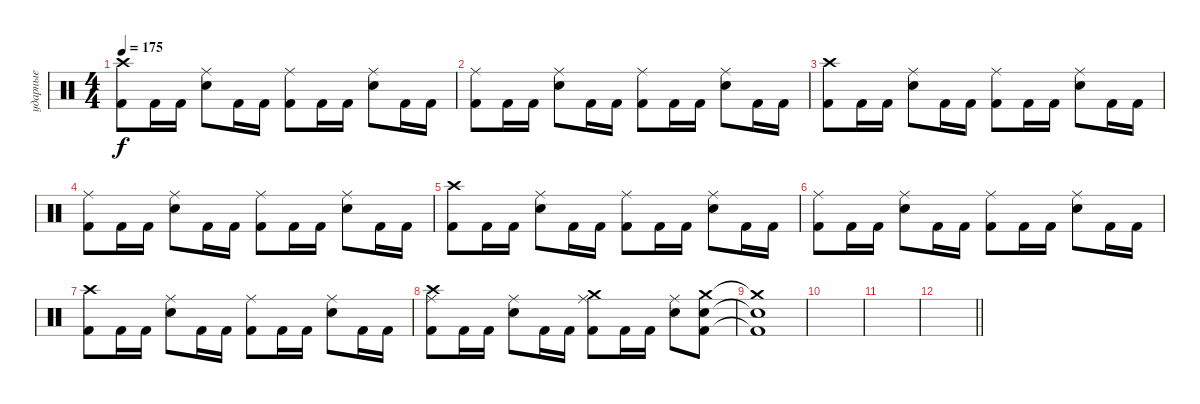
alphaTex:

\track ("ударные" "ударные") {instrument percussion}
\staff {score}
\articulation defaults
\ts (4 4)
\tempo 175
\clef neutral
\ks c
("Kick (hit) 2"{t} "Crash high (hit)"{t}).8{dy f} "Kick (hit) 2".16 "Kick (hit) 2".16 ("Snare (hit) 2" "Ride (middle)").8 "Kick (hit) 2".16 "Kick (hit) 2".16 ("Kick (hit) 2" "Ride (middle)").8 "Kick (hit) 2".16 "Kick (hit) 2".16 ("Snare (hit) 2" "Ride (middle)").8 "Kick (hit) 2".16 "Kick (hit) 2".16 |
("Kick (hit) 2" "Ride (middle)").8 "Kick (hit) 2".16 "Kick (hit) 2".16 ("Snare (hit) 2" "Ride (middle)").8 "Kick (hit) 2".16 "Kick (hit) 2".16 ("Kick (hit) 2" "Ride (middle)").8 "Kick (hit) 2".16 "Kick (hit) 2".16 ("Snare (hit) 2" "Ride (middle)").8 "Kick (hit) 2".16 "Kick (hit) 2".16 |
("Kick (hit) 2" "Crash high (hit)").8 "Kick (hit) 2".16 "Kick (hit) 2".16 ("Snare (hit) 2" "Ride (middle)").8 "Kick (hit) 2".16 "Kick (hit) 2".16 ("Kick (hit) 2" "Ride (middle)").8 "Kick (hit) 2".16 "Kick (hit) 2".16 ("Snare (hit) 2" "Ride (middle)").8 "Kick (hit) 2".16 "Kick (hit) 2".16 |
("Kick (hit) 2" "Ride (middle)").8 "Kick (hit) 2".16 "Kick (hit) 2".16 ("Snare (hit) 2" "Ride (middle)").8 "Kick (hit) 2".16 "Kick (hit) 2".16 ("Kick (hit) 2" "Ride (middle)").8 "Kick (hit) 2".16 "Kick (hit) 2".16 ("Snare (hit) 2" "Ride (middle)").8 "Kick (hit) 2".16 "Kick (hit) 2".16 |
("Kick (hit) 2" "Crash high (hit)").8 "Kick (hit) 2".16 "Kick (hit) 2".16 ("Snare (hit) 2" "Ride (middle)").8 "Kick (hit) 2".16 "Kick (hit) 2".16 ("Kick (hit) 2" "Ride (middle)").8 "Kick (hit) 2".16 "Kick (hit) 2".16 ("Snare (hit) 2" "Ride (middle)").8 "Kick (hit) 2".16 "Kick (hit) 2".16 |
("Kick (hit) 2" "Ride (middle)").8 "Kick (hit) 2".16 "Kick (hit) 2".16 ("Snare (hit) 2" "Ride (middle)").8 "Kick (hit) 2".16 "Kick (hit) 2".16 ("Kick (hit) 2" "Ride (middle)").8 "Kick (hit) 2".16 "Kick (hit) 2".16 ("Snare (hit) 2" "Ride (middle)").8 "Kick (hit) 2".16 "Kick (hit) 2".16 |
("Kick (hit) 2" "Crash high (hit)").8 "Kick (hit) 2".16 "Kick (hit) 2".16 ("Snare (hit) 2" "Ride (middle)").8 "Kick (hit) 2".16 "Kick (hit) 2".16 ("Kick (hit) 2" "Ride (middle)").8 "Kick (hit) 2".16 "Kick (hit) 2".16 ("Snare (hit) 2" "Ride (middle)").8 "Kick (hit) 2".16 "Kick (hit) 2".16 |
("Kick (hit) 2" "Ride (middle)" "Crash high (hit)").8 "Kick (hit) 2".16 "Kick (hit) 2".16 ("Snare (hit) 2" "Ride (middle)").8 "Kick (hit) 2".16 "Kick (hit) 2".16 ("Kick (hit) 2" "Ride (middle)" "Crash medium (hit)").8 "Kick (hit) 2".16 "Kick (hit) 2".16 ("Snare (hit) 2" "Ride (middle)").8 ("Snare (hit) 2" "Kick (hit) 2" "Crash medium (hit)").8 |
("Snare (hit) 2"{t} "Kick (hit) 2"{t} "Crash medium (hit)"{t}).1 |
|
|
\barLineRight lightlight
